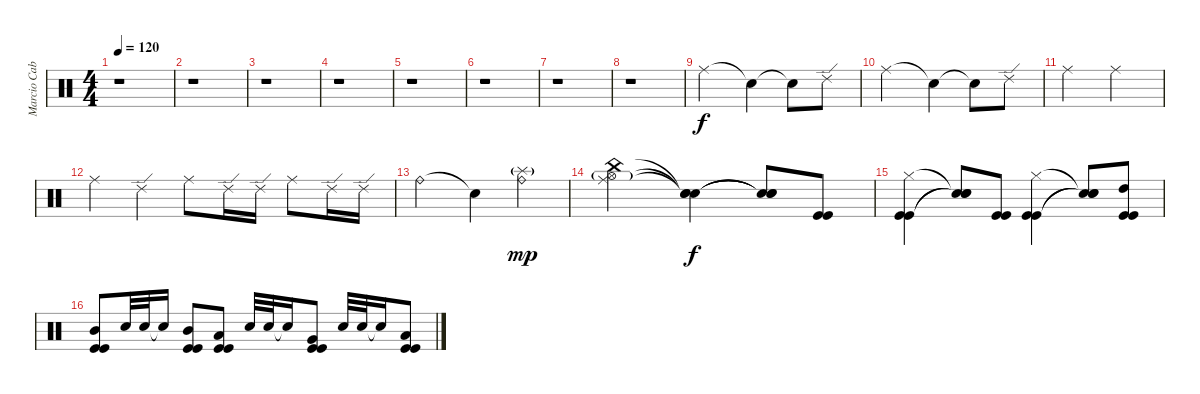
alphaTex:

\track ("Marcio Cabrita" "Marcio Cab") {instrument percussion}
\staff {score}
\articulation defaults
\ts (4 4)
\tempo 120
\clef neutral
\ks c
r.1{dy f} |
r.1 |
r.1 |
r.1 |
r.1 |
r.1 |
r.1 |
r.1 |
"Ride (middle)".2 "Snare (hit)"{t}.4 "Snare (hit)"{t}.8 "Ride (edge) 2".8 |
"Ride (middle)".2 "Snare (hit)"{t}.4 "Snare (hit)"{t}.8 "Ride (edge) 2".8 |
"Ride (middle)".2 "Ride (middle)".2 |
"Ride (middle)".4 "Ride (edge) 2".4 "Ride (middle)".8 "Ride (edge) 2".16 "Ride (edge) 2".16 "Ride (middle)".8 "Ride (edge) 2".16 "Ride (edge) 2".16 |
"Ride (bell)".2 "Snare (hit)"{t}.4 ("Splash (hit)"{g} "Ride (bell)").4{dy mp} |
("China (hit)" "Hi-Hat (open)"{g} "Ride (middle)").2 ("Snare (hit)"{t} "Snare (hit)"{t} "Snare (hit)"{t}).4{dy f} ("Snare (hit)"{t} "Snare (hit)"{t} "Snare (hit)"{t}).8 ("Kick (hit)" "Kick (hit)").8 |
("Hi-Hat (closed)" "Kick (hit)" "Kick (hit)").4 ("Snare (hit)"{t} "Snare (hit)"{t} "Snare (hit)"{t}).8 ("Kick (hit)" "Kick (hit)").8 ("Hi-Hat (closed)" "Kick (hit)" "Kick (hit)").4 ("Snare (hit)"{t} "Snare (hit)"{t} "Snare (hit)"{t}).8 ("High Tom (hit)" "Kick (hit)" "Kick (hit)").8 |
("Mid Tom (hit)" "Kick (hit)" "Kick (hit)").8 "Snare (hit) 2".32 "Snare (hit) 2".32 "Snare (hit)"{t}.16 ("Mid Tom (hit)" "Kick (hit)" "Kick (hit)").8 ("Low Tom (hit)" "Kick (hit)" "Kick (hit)").8 "Snare (hit) 2".32 "Snare (hit) 2".32 "Snare (hit)"{t}.16 ("Very Low Tom (hit)" "Kick (hit)" "Kick (hit)").8 "Snare (hit) 2".32 "Snare (hit) 2".32 "Snare (hit)"{t}.16 ("Low Floor Tom (hit)" "Kick (hit)" "Kick (hit)").8
